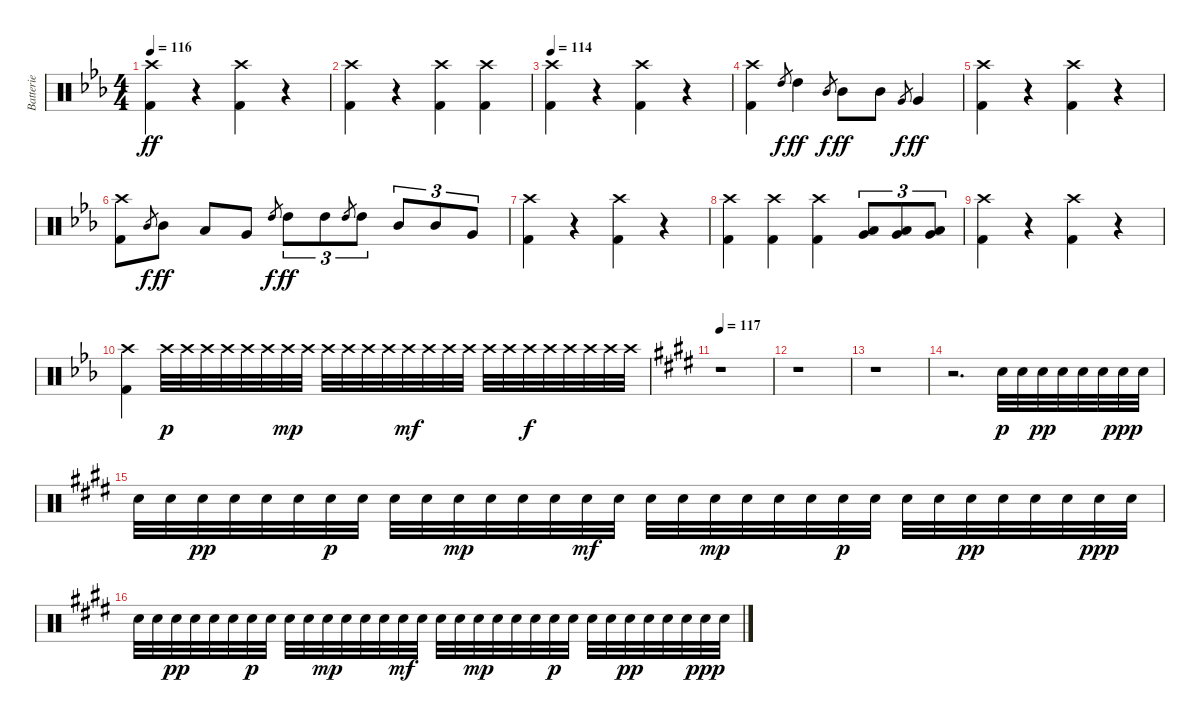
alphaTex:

\track ("Batterie" "Batterie") {instrument percussion}
\staff {score}
\articulation defaults
\ts (4 4)
\tempo 116
\clef neutral
\ks eb
("Crash high (hit)" "Kick (hit) 2").4{dy ff} r.4 ("Crash high (hit)" "Kick (hit) 2").4 r.4 |
("Crash high (hit)" "Kick (hit) 2").4 r.4 ("Crash high (hit)" "Kick (hit) 2").4 ("Crash high (hit)" "Kick (hit) 2").4 |
\tempo 114
("Crash high (hit)" "Kick (hit) 2").4 r.4 ("Crash high (hit)" "Kick (hit) 2").4 r.4 |
("Crash high (hit)" "Kick (hit) 2").4 "High Tom (hit)".8{gr dy f} "High Tom (hit)".4{dy ff} "Mid Tom (hit)".8{gr dy f} "Mid Tom (hit)".8{dy ff} "Mid Tom (hit)".8 "Very Low Tom (hit)".8{gr dy f} "Very Low Tom (hit)".4{dy ff} |
("Crash high (hit)" "Kick (hit) 2").4 r.4 ("Crash high (hit)" "Kick (hit) 2").4 r.4 |
("Crash high (hit)" "Kick (hit) 2").8 "Mid Tom (hit)".8{gr dy f} "Mid Tom (hit)".8{dy ff} "Low Tom (hit)".8 "Very Low Tom (hit)".8 "High Tom (hit)".8{gr dy f} "High Tom (hit)".8{tu (3 2) dy ff} "High Tom (hit)".8{tu (3 2)} "High Tom (hit)".8{gr} "High Tom (hit)".8{tu (3 2)} "Mid Tom (hit)".8{tu (3 2)} "Mid Tom (hit)".8{tu (3 2)} "Very Low Tom (hit)".8{tu (3 2)} |
("Crash high (hit)" "Kick (hit) 2").4 r.4 ("Crash high (hit)" "Kick (hit) 2").4 r.4 |
("Crash high (hit)" "Kick (hit) 2").4 ("Crash high (hit)" "Kick (hit) 2").4 ("Crash high (hit)" "Kick (hit) 2").4 ("Low Tom (hit)" "Very Low Tom (hit)").8{tu (3 2)} ("Low Tom (hit)" "Very Low Tom (hit)").8{tu (3 2)} ("Low Tom (hit)" "Very Low Tom (hit)").8{tu (3 2)} |
("Crash high (hit)" "Kick (hit) 2").4 r.4 ("Crash high (hit)" "Kick (hit) 2").4 r.4 |
("Crash high (hit)" "Kick (hit) 2").4 "Crash high (hit)".32{dy p} "Crash high (hit)".32 "Crash high (hit)".32 "Crash high (hit)".32 "Crash high (hit)".32 "Crash high (hit)".32 "Crash high (hit)".32{dy mp} "Crash high (hit)".32 "Crash high (hit)".32 "Crash high (hit)".32 "Crash high (hit)".32 "Crash high (hit)".32 "Crash high (hit)".32{dy mf} "Crash high (hit)".32 "Crash high (hit)".32 "Crash high (hit)".32 "Crash high (hit)".32 "Crash high (hit)".32 "Crash high (hit)".32{dy f} "Crash high (hit)".32 "Crash high (hit)".32 "Crash high (hit)".32 "Crash high (hit)".32 "Crash high (hit)".32 |
\tempo 117
\ks e
r.1 |
r.1 |
r.1 |
r.2{d} "Snare (hit) 2".32{dy p} "Snare (hit) 2".32 "Snare (hit) 2".32{dy pp} "Snare (hit) 2".32 "Snare (hit) 2".32 "Snare (hit) 2".32 "Snare (hit) 2".32{dy ppp} "Snare (hit) 2".32 |
"Snare (hit) 2".32 "Snare (hit) 2".32 "Snare (hit) 2".32{dy pp} "Snare (hit) 2".32 "Snare (hit) 2".32 "Snare (hit) 2".32 "Snare (hit) 2".32{dy p} "Snare (hit) 2".32 "Snare (hit) 2".32 "Snare (hit) 2".32 "Snare (hit) 2".32{dy mp} "Snare (hit) 2".32 "Snare (hit) 2".32 "Snare (hit) 2".32 "Snare (hit) 2".32{dy mf} "Snare (hit) 2".32 "Snare (hit) 2".32 "Snare (hit) 2".32 "Snare (hit) 2".32{dy mp} "Snare (hit) 2".32 "Snare (hit) 2".32 "Snare (hit) 2".32 "Snare (hit) 2".32{dy p} "Snare (hit) 2".32 "Snare (hit) 2".32 "Snare (hit) 2".32 "Snare (hit) 2".32{dy pp} "Snare (hit) 2".32 "Snare (hit) 2".32 "Snare (hit) 2".32 "Snare (hit) 2".32{dy ppp} "Snare (hit) 2".32 |
"Snare (hit) 2".32 "Snare (hit) 2".32 "Snare (hit) 2".32{dy pp} "Snare (hit) 2".32 "Snare (hit) 2".32 "Snare (hit) 2".32 "Snare (hit) 2".32{dy p} "Snare (hit) 2".32 "Snare (hit) 2".32 "Snare (hit) 2".32 "Snare (hit) 2".32{dy mp} "Snare (hit) 2".32 "Snare (hit) 2".32 "Snare (hit) 2".32 "Snare (hit) 2".32{dy mf} "Snare (hit) 2".32 "Snare (hit) 2".32 "Snare (hit) 2".32 "Snare (hit) 2".32{dy mp} "Snare (hit) 2".32 "Snare (hit) 2".32 "Snare (hit) 2".32 "Snare (hit) 2".32{dy p} "Snare (hit) 2".32 "Snare (hit) 2".32 "Snare (hit) 2".32 "Snare (hit) 2".32{dy pp} "Snare (hit) 2".32 "Snare (hit) 2".32 "Snare (hit) 2".32 "Snare (hit) 2".32{dy ppp} "Snare (hit) 2".32
